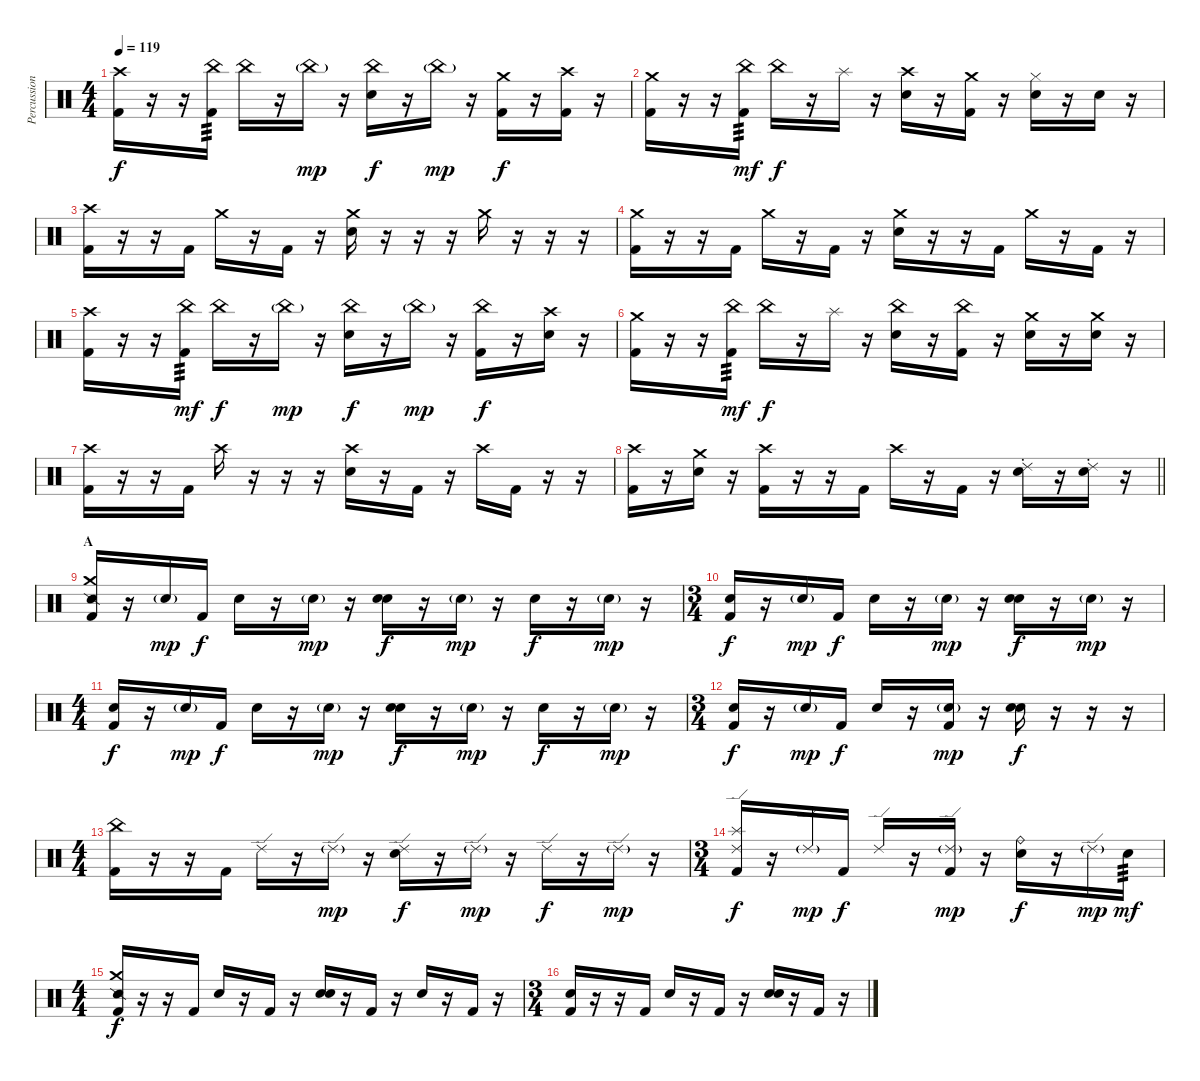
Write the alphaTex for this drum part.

\track ("Percussion" "Percussion") {instrument percussion}
\staff {score}
\articulation defaults
\ts (4 4)
\tempo 119
\clef neutral
\ks c
("Crash high (hit)" "Kick (hit) 2").16{dy f} r.16 r.16 ("China (hit)" "Kick (hit) 2").16{tp 3} "China (hit)".16 r.16 "China (hit)"{g}.16{dy mp} r.16 ("China (hit)" "Snare (hit) 2").16{dy f} r.16 "China (hit)"{g}.16{dy mp} r.16 ("Crash medium (hit)" "Kick (hit) 2").16{dy f} r.16 ("Crash high (hit)" "Kick (hit) 2").16 r.16 |
("Crash medium (hit)" "Kick (hit) 2").16 r.16 r.16 ("China (hit)" "Kick (hit) 2").16{tp 3 dy mf} "China (hit)".16{dy f} r.16 "Splash (hit)".16 r.16 ("Crash high (hit)" "Snare (hit) 2").16 r.16 ("Crash medium (hit)" "Kick (hit) 2").16 r.16 ("Hi-Hat (closed)" "Snare (hit) 2").16 r.16 "Snare (hit) 2".16 r.16 |
("Crash high (hit)" "Kick (hit) 2").16 r.16 r.16 "Kick (hit) 2".16 "Crash medium (hit)".16 r.16 "Kick (hit) 2".16 r.16 ("Crash medium (hit)" "Snare (hit) 2").16 r.16 r.16 r.16 "Crash medium (hit)".16 r.16 r.16 r.16 |
("Crash medium (hit)" "Kick (hit) 2").16 r.16 r.16 "Kick (hit) 2".16 "Crash medium (hit)".16 r.16 "Kick (hit) 2".16 r.16 ("Crash medium (hit)" "Snare (hit) 2").16 r.16 r.16 "Kick (hit) 2".16 "Crash medium (hit)".16 r.16 "Kick (hit) 2".16 r.16 |
("Crash high (hit)" "Kick (hit) 2").16 r.16 r.16 ("China (hit)" "Kick (hit) 2").16{tp 3 dy mf} "China (hit)".16{dy f} r.16 "China (hit)"{g}.16{dy mp} r.16 ("China (hit)" "Snare (hit) 2").16{dy f} r.16 "China (hit)"{g}.16{dy mp} r.16 ("China (hit)" "Kick (hit) 2").16{dy f} r.16 ("Crash high (hit)" "Snare (hit) 2").16 r.16 |
("Crash medium (hit)" "Kick (hit) 2").16 r.16 r.16 ("China (hit)" "Kick (hit) 2").16{tp 3 dy mf} "China (hit)".16{dy f} r.16 "Splash (hit)".16 r.16 ("China (hit)" "Snare (hit) 2").16 r.16 ("China (hit)" "Kick (hit) 2").16 r.16 ("Crash medium (hit)" "Snare (hit) 2").16 r.16 ("Crash medium (hit)" "Snare (hit) 2").16 r.16 |
("Crash high (hit)" "Kick (hit) 2").16 r.16 r.16 "Kick (hit) 2".16 "Crash high (hit)".16 r.16 r.16 r.16 ("Crash high (hit)" "Snare (hit) 2").16 r.16 "Kick (hit) 2".16 r.16 "Crash high (hit)".16 "Kick (hit) 2".16 r.16 r.16 |
\barLineRight lightlight
("Crash high (hit)" "Kick (hit) 2").16 r.16 ("Crash medium (hit)" "Snare (hit) 2").16 r.16 ("Crash high (hit)" "Kick (hit) 2").16 r.16 r.16 "Kick (hit) 2".16 "Crash high (hit)".16 r.16 "Kick (hit) 2".16 r.16 ("Ride (choke) 2" "Snare (hit) 2").16 r.16 ("Ride (choke) 2" "Snare (hit) 2").16 r.16 |
\section ("" "A")
("Snare (side stick) 2" "Crash medium (hit)" "Kick (hit) 2").16 r.16 "Snare (hit)"{g}.16{dy mp} "Kick (hit) 2".16{dy f} "Snare (hit)".16 r.16 "Snare (hit)"{g}.16{dy mp} r.16 ("Snare (hit)" "Snare (hit) 2").16{dy f} r.16 "Snare (hit)"{g}.16{dy mp} r.16 "Snare (hit)".16{dy f} r.16 "Snare (hit)"{g}.16{dy mp} r.16 |
\ts (3 4)
("Snare (hit)" "Kick (hit) 2").16{dy f} r.16 "Snare (hit)"{g}.16{dy mp} "Kick (hit) 2".16{dy f} "Snare (hit)".16 r.16 "Snare (hit)"{g}.16{dy mp} r.16 ("Snare (hit)" "Snare (hit) 2").16{dy f} r.16 "Snare (hit)"{g}.16{dy mp} r.16 |
\ts (4 4)
("Snare (hit)" "Kick (hit) 2").16{dy f} r.16 "Snare (hit)"{g}.16{dy mp} "Kick (hit) 2".16{dy f} "Snare (hit)".16 r.16 "Snare (hit)"{g}.16{dy mp} r.16 ("Snare (hit)" "Snare (hit) 2").16{dy f} r.16 "Snare (hit)"{g}.16{dy mp} r.16 "Snare (hit)".16{dy f} r.16 "Snare (hit)"{g}.16{dy mp} r.16 |
\ts (3 4)
("Snare (hit)" "Kick (hit) 2").16{dy f} r.16 "Snare (hit)"{g}.16{dy mp} "Kick (hit) 2".16{dy f} "Snare (hit)".16 r.16 ("Snare (hit)"{g} "Kick (hit) 2").16{dy mp} r.16 ("Snare (hit)" "Snare (hit) 2").16{dy f} r.16 r.16 r.16 |
\ts (4 4)
("China (hit)" "Kick (hit) 2").16 r.16 r.16 "Kick (hit) 2".16 "Ride (edge) 2".16 r.16 "Ride (edge) 2"{g}.16{dy mp} r.16 ("Ride (edge) 2" "Snare (hit) 2").16{dy f} r.16 "Ride (edge) 2"{g}.16{dy mp} r.16 "Ride (edge) 2".16{dy f} r.16 "Ride (edge) 2"{g}.16{dy mp} r.16 |
\ts (3 4)
("Ride (edge) 2" "Splash (hit)" "Kick (hit) 2").16{dy f} r.16 "Ride (edge) 2"{g}.16{dy mp} "Kick (hit) 2".16{dy f} "Ride (edge) 2".16 r.16 ("Ride (edge) 2"{g} "Kick (hit) 2").16{dy mp} r.16 ("Ride (bell)" "Snare (hit) 2").16{dy f} r.16 "Ride (edge) 2"{g}.16{dy mp} "Snare (hit) 2".16{tp 3 dy mf} |
\ts (4 4)
("Snare (side stick) 2" "Crash medium (hit)" "Kick (hit) 2").16{dy f} r.16 r.16 "Kick (hit) 2".16 "Snare (hit)".16 r.16 "Kick (hit) 2".16 r.16 ("Snare (hit)" "Snare (hit) 2").16 r.16 "Kick (hit) 2".16 r.16 "Snare (hit)".16 r.16 "Kick (hit) 2".16 r.16 |
\ts (3 4)
("Snare (hit)" "Kick (hit) 2").16 r.16 r.16 "Kick (hit) 2".16 "Snare (hit)".16 r.16 "Kick (hit) 2".16 r.16 ("Snare (hit)" "Snare (hit) 2").16 r.16 "Kick (hit) 2".16 r.16
